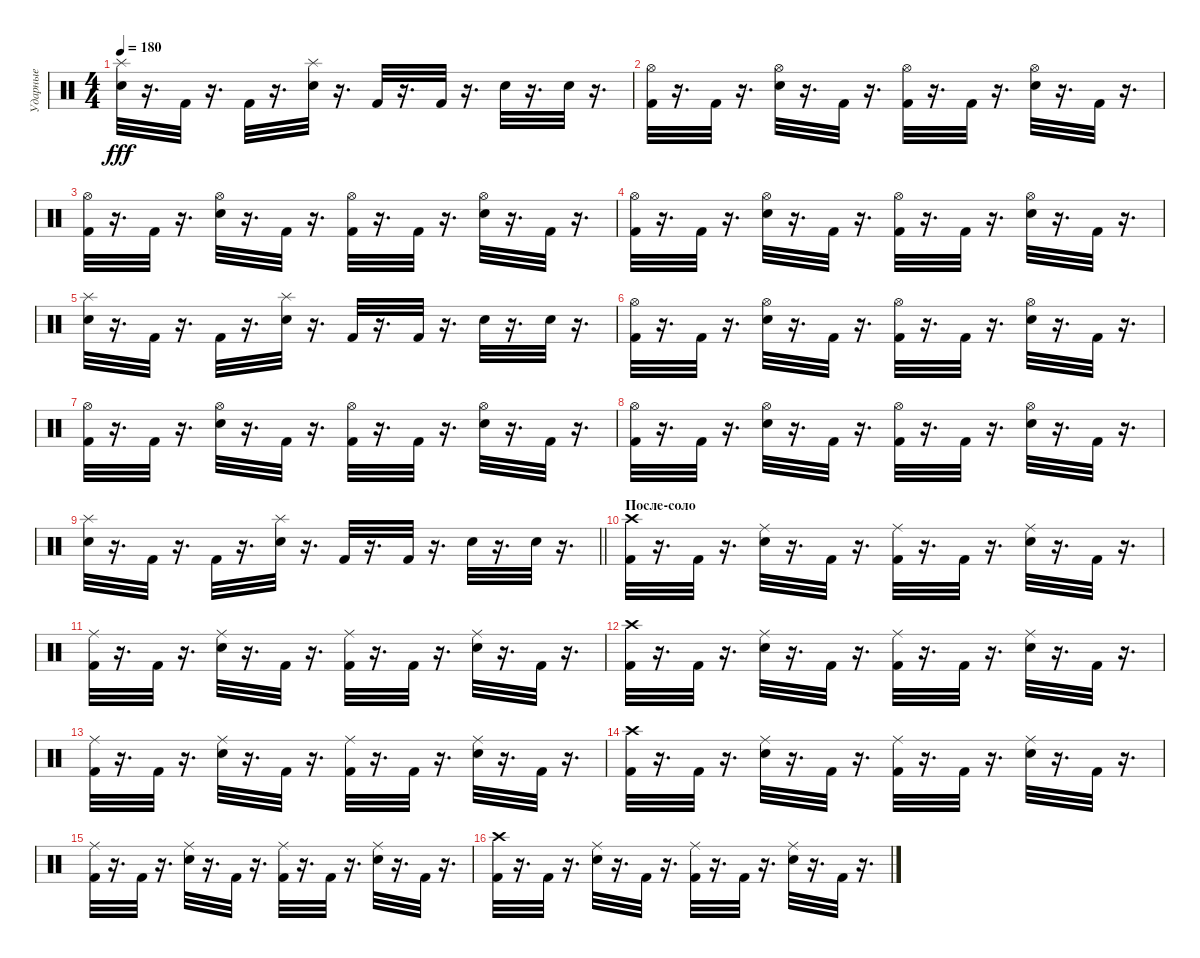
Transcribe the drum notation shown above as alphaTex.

\track ("Ударные" "Ударные") {instrument percussion}
\staff {score}
\articulation defaults
\ts (4 4)
\tempo 180
\clef neutral
\ks c
("Electric Snare (hit)" "Splash (hit)").32{dy fff} r.16{d} "Kick (hit) 2".32 r.16{d} "Kick (hit) 2".32 r.16{d} ("Electric Snare (hit)" "Splash (hit)").32 r.16{d} "Kick (hit) 2".32 r.16{d} "Kick (hit) 2".32 r.16{d} "Electric Snare (hit)".32 r.16{d} "Electric Snare (hit)".32 r.16{d} |
("Kick (hit) 2" "Hi-Hat (open)").32 r.16{d} "Kick (hit) 2".32 r.16{d} ("Snare (hit) 2" "Hi-Hat (open)").32 r.16{d} "Kick (hit) 2".32 r.16{d} ("Kick (hit) 2" "Hi-Hat (open)").32 r.16{d} "Kick (hit) 2".32 r.16{d} ("Hi-Hat (open)" "Snare (hit) 2").32 r.16{d} "Kick (hit) 2".32 r.16{d} |
("Hi-Hat (open)" "Kick (hit) 2").32 r.16{d} "Kick (hit) 2".32 r.16{d} ("Hi-Hat (open)" "Snare (hit) 2").32 r.16{d} "Kick (hit) 2".32 r.16{d} ("Kick (hit) 2" "Hi-Hat (open)").32 r.16{d} "Kick (hit) 2".32 r.16{d} ("Hi-Hat (open)" "Snare (hit) 2").32 r.16{d} "Kick (hit) 2".32 r.16{d} |
("Kick (hit) 2" "Hi-Hat (open)").32 r.16{d} "Kick (hit) 2".32 r.16{d} ("Hi-Hat (open)" "Snare (hit) 2").32 r.16{d} "Kick (hit) 2".32 r.16{d} ("Kick (hit) 2" "Hi-Hat (open)").32 r.16{d} "Kick (hit) 2".32 r.16{d} ("Snare (hit) 2" "Hi-Hat (open)").32 r.16{d} "Kick (hit) 2".32 r.16{d} |
("Splash (hit)" "Electric Snare (hit)").32 r.16{d} "Kick (hit) 2".32 r.16{d} "Kick (hit) 2".32 r.16{d} ("Splash (hit)" "Electric Snare (hit)").32 r.16{d} "Kick (hit) 2".32 r.16{d} "Kick (hit) 2".32 r.16{d} "Electric Snare (hit)".32 r.16{d} "Electric Snare (hit)".32 r.16{d} |
("Hi-Hat (open)" "Kick (hit) 2").32 r.16{d} "Kick (hit) 2".32 r.16{d} ("Hi-Hat (open)" "Snare (hit) 2").32 r.16{d} "Kick (hit) 2".32 r.16{d} ("Kick (hit) 2" "Hi-Hat (open)").32 r.16{d} "Kick (hit) 2".32 r.16{d} ("Snare (hit) 2" "Hi-Hat (open)").32 r.16{d} "Kick (hit) 2".32 r.16{d} |
("Hi-Hat (open)" "Kick (hit) 2").32 r.16{d} "Kick (hit) 2".32 r.16{d} ("Snare (hit) 2" "Hi-Hat (open)").32 r.16{d} "Kick (hit) 2".32 r.16{d} ("Hi-Hat (open)" "Kick (hit) 2").32 r.16{d} "Kick (hit) 2".32 r.16{d} ("Hi-Hat (open)" "Snare (hit) 2").32 r.16{d} "Kick (hit) 2".32 r.16{d} |
("Hi-Hat (open)" "Kick (hit) 2").32 r.16{d} "Kick (hit) 2".32 r.16{d} ("Snare (hit) 2" "Hi-Hat (open)").32 r.16{d} "Kick (hit) 2".32 r.16{d} ("Kick (hit) 2" "Hi-Hat (open)").32 r.16{d} "Kick (hit) 2".32 r.16{d} ("Hi-Hat (open)" "Snare (hit) 2").32 r.16{d} "Kick (hit) 2".32 r.16{d} |
\barLineRight lightlight
("Splash (hit)" "Electric Snare (hit)").32 r.16{d} "Kick (hit) 2".32 r.16{d} "Kick (hit) 2".32 r.16{d} ("Splash (hit)" "Electric Snare (hit)").32 r.16{d} "Kick (hit) 2".32 r.16{d} "Kick (hit) 2".32 r.16{d} "Electric Snare (hit)".32 r.16{d} "Electric Snare (hit)".32 r.16{d} |
\section ("" "После-соло")
("Kick (hit) 2" "Crash high (hit)").32 r.16{d} "Kick (hit) 2".32 r.16{d} ("Ride (middle)" "Snare (hit) 2").32 r.16{d} "Kick (hit) 2".32 r.16{d} ("Kick (hit) 2" "Ride (middle)").32 r.16{d} "Kick (hit) 2".32 r.16{d} ("Snare (hit) 2" "Ride (middle)").32 r.16{d} "Kick (hit) 2".32 r.16{d} |
("Kick (hit) 2" "Ride (middle)").32 r.16{d} "Kick (hit) 2".32 r.16{d} ("Snare (hit) 2" "Ride (middle)").32 r.16{d} "Kick (hit) 2".32 r.16{d} ("Ride (middle)" "Kick (hit) 2").32 r.16{d} "Kick (hit) 2".32 r.16{d} ("Ride (middle)" "Snare (hit) 2").32 r.16{d} "Kick (hit) 2".32 r.16{d} |
("Kick (hit) 2" "Crash high (hit)").32 r.16{d} "Kick (hit) 2".32 r.16{d} ("Ride (middle)" "Snare (hit) 2").32 r.16{d} "Kick (hit) 2".32 r.16{d} ("Kick (hit) 2" "Ride (middle)").32 r.16{d} "Kick (hit) 2".32 r.16{d} ("Ride (middle)" "Snare (hit) 2").32 r.16{d} "Kick (hit) 2".32 r.16{d} |
("Ride (middle)" "Kick (hit) 2").32 r.16{d} "Kick (hit) 2".32 r.16{d} ("Snare (hit) 2" "Ride (middle)").32 r.16{d} "Kick (hit) 2".32 r.16{d} ("Ride (middle)" "Kick (hit) 2").32 r.16{d} "Kick (hit) 2".32 r.16{d} ("Snare (hit) 2" "Ride (middle)").32 r.16{d} "Kick (hit) 2".32 r.16{d} |
("Kick (hit) 2" "Crash high (hit)").32 r.16{d} "Kick (hit) 2".32 r.16{d} ("Ride (middle)" "Snare (hit) 2").32 r.16{d} "Kick (hit) 2".32 r.16{d} ("Kick (hit) 2" "Ride (middle)").32 r.16{d} "Kick (hit) 2".32 r.16{d} ("Snare (hit) 2" "Ride (middle)").32 r.16{d} "Kick (hit) 2".32 r.16{d} |
("Ride (middle)" "Kick (hit) 2").32 r.16{d} "Kick (hit) 2".32 r.16{d} ("Ride (middle)" "Snare (hit) 2").32 r.16{d} "Kick (hit) 2".32 r.16{d} ("Kick (hit) 2" "Ride (middle)").32 r.16{d} "Kick (hit) 2".32 r.16{d} ("Snare (hit) 2" "Ride (middle)").32 r.16{d} "Kick (hit) 2".32 r.16{d} |
("Crash high (hit)" "Kick (hit) 2").32 r.16{d} "Kick (hit) 2".32 r.16{d} ("Ride (middle)" "Snare (hit) 2").32 r.16{d} "Kick (hit) 2".32 r.16{d} ("Ride (middle)" "Kick (hit) 2").32 r.16{d} "Kick (hit) 2".32 r.16{d} ("Ride (middle)" "Snare (hit) 2").32 r.16{d} "Kick (hit) 2".32 r.16{d}
